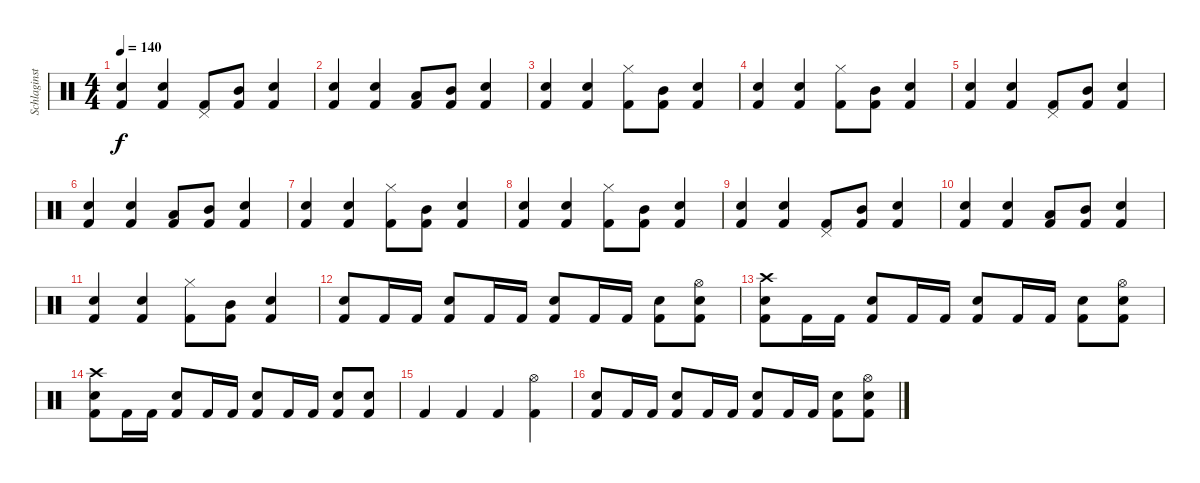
\track ("Schlaginstrumente - Auswahl" "Schlaginst") {instrument percussion}
\staff {score}
\articulation defaults
\ts (4 4)
\tempo 140
\clef neutral
\ks c
("Kick (hit) 2" "Snare (hit) 2").4{dy f} ("Kick (hit) 2" "Snare (hit) 2").4 ("Kick (hit) 2" "Pedal Hi-Hat (hit)").8 ("Kick (hit) 2" "Mid Tom (hit)").8 ("Kick (hit) 2" "Snare (hit) 2").4 |
("Kick (hit) 2" "Snare (hit) 2").4 ("Kick (hit) 2" "Snare (hit) 2").4 ("Kick (hit) 2" "Low Tom (hit)").8 ("Kick (hit) 2" "Mid Tom (hit)").8 ("Kick (hit) 2" "Snare (hit) 2").4 |
("Kick (hit) 2" "Snare (hit) 2").4 ("Kick (hit) 2" "Snare (hit) 2").4 ("Kick (hit) 2" "Hi-Hat (closed)").8 ("Kick (hit) 2" "Mid Tom (hit)").8 ("Kick (hit) 2" "Snare (hit) 2").4 |
("Kick (hit) 2" "Snare (hit) 2").4 ("Kick (hit) 2" "Snare (hit) 2").4 ("Kick (hit) 2" "Hi-Hat (closed)").8 ("Kick (hit) 2" "Mid Tom (hit)").8 ("Kick (hit) 2" "Snare (hit) 2").4 |
("Kick (hit) 2" "Snare (hit) 2").4 ("Kick (hit) 2" "Snare (hit) 2").4 ("Kick (hit) 2" "Pedal Hi-Hat (hit)").8 ("Kick (hit) 2" "Mid Tom (hit)").8 ("Kick (hit) 2" "Snare (hit) 2").4 |
("Kick (hit) 2" "Snare (hit) 2").4 ("Kick (hit) 2" "Snare (hit) 2").4 ("Kick (hit) 2" "Low Tom (hit)").8 ("Kick (hit) 2" "Mid Tom (hit)").8 ("Kick (hit) 2" "Snare (hit) 2").4 |
("Kick (hit) 2" "Snare (hit) 2").4 ("Kick (hit) 2" "Snare (hit) 2").4 ("Kick (hit) 2" "Hi-Hat (closed)").8 ("Kick (hit) 2" "Mid Tom (hit)").8 ("Kick (hit) 2" "Snare (hit) 2").4 |
("Kick (hit) 2" "Snare (hit) 2").4 ("Kick (hit) 2" "Snare (hit) 2").4 ("Kick (hit) 2" "Hi-Hat (closed)").8 ("Kick (hit) 2" "Mid Tom (hit)").8 ("Kick (hit) 2" "Snare (hit) 2").4 |
("Kick (hit) 2" "Snare (hit) 2").4 ("Kick (hit) 2" "Snare (hit) 2").4 ("Kick (hit) 2" "Pedal Hi-Hat (hit)").8 ("Kick (hit) 2" "Mid Tom (hit)").8 ("Kick (hit) 2" "Snare (hit) 2").4 |
("Kick (hit) 2" "Snare (hit) 2").4 ("Kick (hit) 2" "Snare (hit) 2").4 ("Kick (hit) 2" "Low Tom (hit)").8 ("Kick (hit) 2" "Mid Tom (hit)").8 ("Kick (hit) 2" "Snare (hit) 2").4 |
("Kick (hit) 2" "Snare (hit) 2").4 ("Kick (hit) 2" "Snare (hit) 2").4 ("Kick (hit) 2" "Hi-Hat (closed)").8 ("Kick (hit) 2" "Mid Tom (hit)").8 ("Kick (hit) 2" "Snare (hit) 2").4 |
("Kick (hit) 2" "Snare (hit) 2").8 "Kick (hit) 2".16 "Kick (hit) 2".16 ("Kick (hit) 2" "Snare (hit) 2").8 "Kick (hit) 2".16 "Kick (hit) 2".16 ("Kick (hit) 2" "Snare (hit) 2").8 "Kick (hit) 2".16 "Kick (hit) 2".16 ("Kick (hit) 2" "Snare (hit) 2").8 ("Kick (hit) 2" "Snare (hit) 2" "Hi-Hat (open)").8 |
("Kick (hit) 2" "Snare (hit) 2" "Crash high (hit)").8 "Kick (hit) 2".16 "Kick (hit) 2".16 ("Kick (hit) 2" "Snare (hit) 2").8 "Kick (hit) 2".16 "Kick (hit) 2".16 ("Kick (hit) 2" "Snare (hit) 2").8 "Kick (hit) 2".16 "Kick (hit) 2".16 ("Kick (hit) 2" "Snare (hit) 2").8 ("Kick (hit) 2" "Snare (hit) 2" "Hi-Hat (open)").8 |
("Kick (hit) 2" "Snare (hit) 2" "Crash high (hit)").8 "Kick (hit) 2".16 "Kick (hit) 2".16 ("Kick (hit) 2" "Snare (hit) 2").8 "Kick (hit) 2".16 "Kick (hit) 2".16 ("Kick (hit) 2" "Snare (hit) 2").8 "Kick (hit) 2".16 "Kick (hit) 2".16 ("Kick (hit) 2" "Snare (hit) 2").8 ("Kick (hit) 2" "Snare (hit) 2").8 |
"Kick (hit) 2".4 "Kick (hit) 2".4 "Kick (hit) 2".4 ("Kick (hit) 2" "Hi-Hat (open)").4 |
("Kick (hit) 2" "Snare (hit) 2").8 "Kick (hit) 2".16 "Kick (hit) 2".16 ("Kick (hit) 2" "Snare (hit) 2").8 "Kick (hit) 2".16 "Kick (hit) 2".16 ("Kick (hit) 2" "Snare (hit) 2").8 "Kick (hit) 2".16 "Kick (hit) 2".16 ("Kick (hit) 2" "Snare (hit) 2").8 ("Kick (hit) 2" "Snare (hit) 2" "Hi-Hat (open)").8
